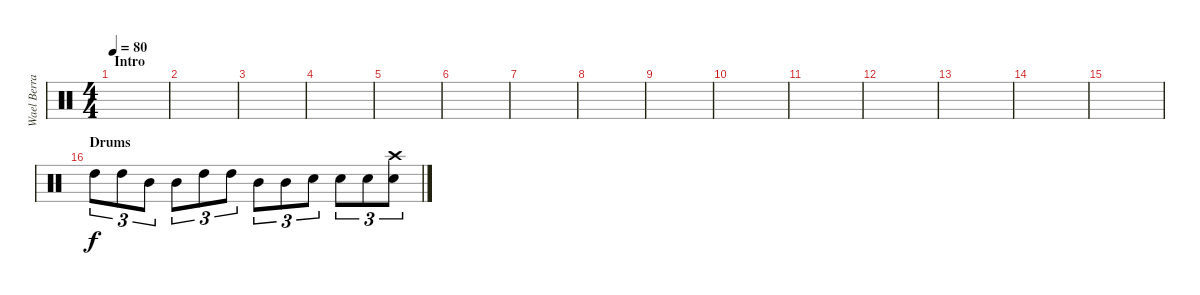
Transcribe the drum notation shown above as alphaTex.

\track ("Wael Berrais" "Wael Berra") {instrument percussion}
\staff {score}
\articulation defaults
\ts (4 4)
\section ("" "Intro")
\tempo 80
\clef neutral
\ks c
|
|
|
|
|
|
|
|
|
|
|
|
|
|
|
\section ("" "Drums")
"High Tom (hit)".8{tu (3 2)} "High Tom (hit)".8{tu (3 2)} "Mid Tom (hit)".8{tu (3 2)} "Mid Tom (hit)".8{tu (3 2)} "High Tom (hit)".8{tu (3 2)} "High Tom (hit)".8{tu (3 2)} "Mid Tom (hit)".8{tu (3 2)} "Mid Tom (hit)".8{tu (3 2)} "Electric Snare (hit)".8{tu (3 2)} "Electric Snare (hit)".8{tu (3 2)} "Electric Snare (hit)".8{tu (3 2)} ("Crash high (hit)" "Electric Snare (hit)").8{tu (3 2)}
